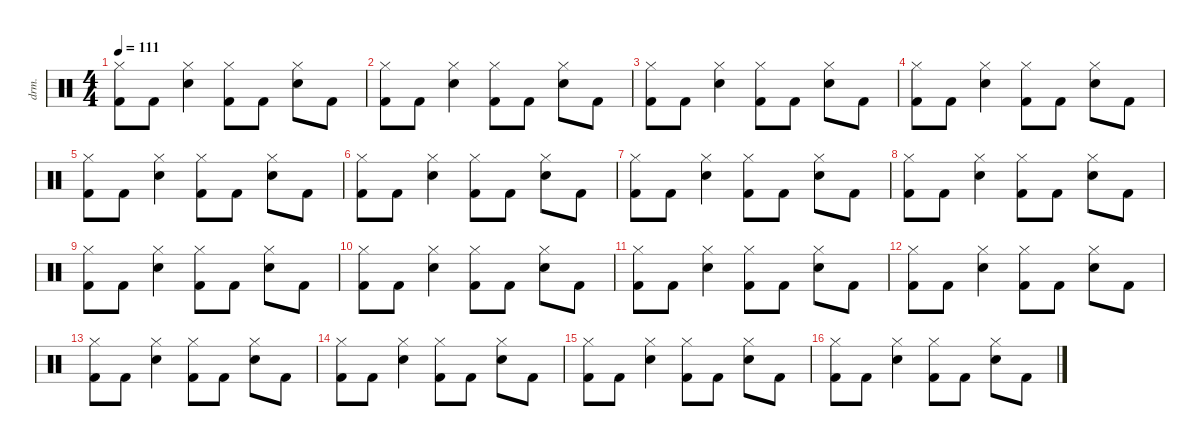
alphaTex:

\defaultSystemsLayout 4
\hideDynamics
\bracketExtendMode nobrackets
\otherSystemsTrackNameOrientation horizontal
\track ("Drums" "drm.") {instrument percussion}
\staff {score}
\articulation defaults
\ts (4 4)
\tempo 111
\clef neutral
\ks c
("Kick (hit) 2" "Hi-Hat (closed)").8{dy f} "Kick (hit) 2".8 ("Snare (hit) 2" "Hi-Hat (closed)").4 ("Kick (hit) 2" "Hi-Hat (closed)").8 "Kick (hit) 2".8 ("Snare (hit) 2" "Hi-Hat (closed)").8 "Kick (hit) 2".8 |
("Kick (hit) 2" "Hi-Hat (closed)").8 "Kick (hit) 2".8 ("Snare (hit) 2" "Hi-Hat (closed)").4 ("Kick (hit) 2" "Hi-Hat (closed)").8 "Kick (hit) 2".8 ("Snare (hit) 2" "Hi-Hat (closed)").8 "Kick (hit) 2".8 |
("Kick (hit) 2" "Hi-Hat (closed)").8 "Kick (hit) 2".8 ("Snare (hit) 2" "Hi-Hat (closed)").4 ("Kick (hit) 2" "Hi-Hat (closed)").8 "Kick (hit) 2".8 ("Snare (hit) 2" "Hi-Hat (closed)").8 "Kick (hit) 2".8 |
("Kick (hit) 2" "Hi-Hat (closed)").8 "Kick (hit) 2".8 ("Snare (hit) 2" "Hi-Hat (closed)").4 ("Kick (hit) 2" "Hi-Hat (closed)").8 "Kick (hit) 2".8 ("Snare (hit) 2" "Hi-Hat (closed)").8 "Kick (hit) 2".8 |
("Kick (hit) 2" "Hi-Hat (closed)").8 "Kick (hit) 2".8 ("Snare (hit) 2" "Hi-Hat (closed)").4 ("Kick (hit) 2" "Hi-Hat (closed)").8 "Kick (hit) 2".8 ("Snare (hit) 2" "Hi-Hat (closed)").8 "Kick (hit) 2".8 |
("Kick (hit) 2" "Hi-Hat (closed)").8 "Kick (hit) 2".8 ("Snare (hit) 2" "Hi-Hat (closed)").4 ("Kick (hit) 2" "Hi-Hat (closed)").8 "Kick (hit) 2".8 ("Snare (hit) 2" "Hi-Hat (closed)").8 "Kick (hit) 2".8 |
("Kick (hit) 2" "Hi-Hat (closed)").8 "Kick (hit) 2".8 ("Snare (hit) 2" "Hi-Hat (closed)").4 ("Kick (hit) 2" "Hi-Hat (closed)").8 "Kick (hit) 2".8 ("Snare (hit) 2" "Hi-Hat (closed)").8 "Kick (hit) 2".8 |
("Kick (hit) 2" "Hi-Hat (closed)").8 "Kick (hit) 2".8 ("Snare (hit) 2" "Hi-Hat (closed)").4 ("Kick (hit) 2" "Hi-Hat (closed)").8 "Kick (hit) 2".8 ("Snare (hit) 2" "Hi-Hat (closed)").8 "Kick (hit) 2".8 |
("Kick (hit) 2" "Hi-Hat (closed)").8 "Kick (hit) 2".8 ("Snare (hit) 2" "Hi-Hat (closed)").4 ("Kick (hit) 2" "Hi-Hat (closed)").8 "Kick (hit) 2".8 ("Snare (hit) 2" "Hi-Hat (closed)").8 "Kick (hit) 2".8 |
("Kick (hit) 2" "Hi-Hat (closed)").8 "Kick (hit) 2".8 ("Snare (hit) 2" "Hi-Hat (closed)").4 ("Kick (hit) 2" "Hi-Hat (closed)").8 "Kick (hit) 2".8 ("Snare (hit) 2" "Hi-Hat (closed)").8 "Kick (hit) 2".8 |
("Kick (hit) 2" "Hi-Hat (closed)").8 "Kick (hit) 2".8 ("Snare (hit) 2" "Hi-Hat (closed)").4 ("Kick (hit) 2" "Hi-Hat (closed)").8 "Kick (hit) 2".8 ("Snare (hit) 2" "Hi-Hat (closed)").8 "Kick (hit) 2".8 |
("Kick (hit) 2" "Hi-Hat (closed)").8 "Kick (hit) 2".8 ("Snare (hit) 2" "Hi-Hat (closed)").4 ("Kick (hit) 2" "Hi-Hat (closed)").8 "Kick (hit) 2".8 ("Snare (hit) 2" "Hi-Hat (closed)").8 "Kick (hit) 2".8 |
("Kick (hit) 2" "Hi-Hat (closed)").8 "Kick (hit) 2".8 ("Snare (hit) 2" "Hi-Hat (closed)").4 ("Kick (hit) 2" "Hi-Hat (closed)").8 "Kick (hit) 2".8 ("Snare (hit) 2" "Hi-Hat (closed)").8 "Kick (hit) 2".8 |
("Kick (hit) 2" "Hi-Hat (closed)").8 "Kick (hit) 2".8 ("Snare (hit) 2" "Hi-Hat (closed)").4 ("Kick (hit) 2" "Hi-Hat (closed)").8 "Kick (hit) 2".8 ("Snare (hit) 2" "Hi-Hat (closed)").8 "Kick (hit) 2".8 |
("Kick (hit) 2" "Hi-Hat (closed)").8 "Kick (hit) 2".8 ("Snare (hit) 2" "Hi-Hat (closed)").4 ("Kick (hit) 2" "Hi-Hat (closed)").8 "Kick (hit) 2".8 ("Snare (hit) 2" "Hi-Hat (closed)").8 "Kick (hit) 2".8 |
("Kick (hit) 2" "Hi-Hat (closed)").8 "Kick (hit) 2".8 ("Snare (hit) 2" "Hi-Hat (closed)").4 ("Kick (hit) 2" "Hi-Hat (closed)").8 "Kick (hit) 2".8 ("Snare (hit) 2" "Hi-Hat (closed)").8 "Kick (hit) 2".8
